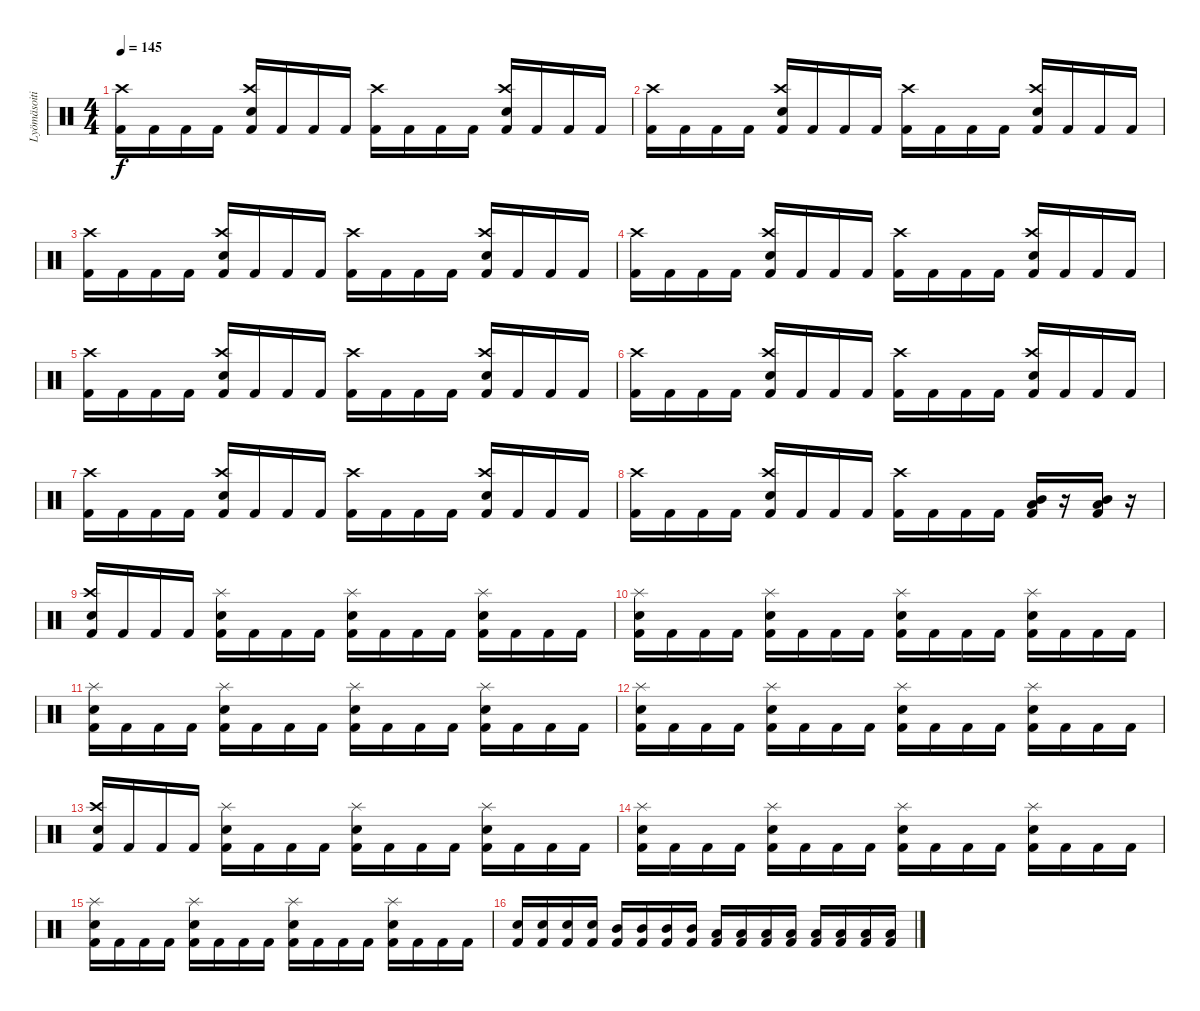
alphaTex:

\track ("Lyömäsoitin" "Lyömäsoiti") {instrument percussion}
\staff {score}
\articulation defaults
\ts (4 4)
\tempo 145
\clef neutral
\ks c
("Kick (hit) 2" "Crash high (hit)").16{dy f} "Kick (hit) 2".16 "Kick (hit) 2".16 "Kick (hit) 2".16 ("Kick (hit) 2" "Electric Snare (hit)" "Crash high (hit)").16 "Kick (hit) 2".16 "Kick (hit) 2".16 "Kick (hit) 2".16 ("Kick (hit) 2" "Crash high (hit)").16 "Kick (hit) 2".16 "Kick (hit) 2".16 "Kick (hit) 2".16 ("Kick (hit) 2" "Electric Snare (hit)" "Crash high (hit)").16 "Kick (hit) 2".16 "Kick (hit) 2".16 "Kick (hit) 2".16 |
("Kick (hit) 2" "Crash high (hit)").16 "Kick (hit) 2".16 "Kick (hit) 2".16 "Kick (hit) 2".16 ("Kick (hit) 2" "Electric Snare (hit)" "Crash high (hit)").16 "Kick (hit) 2".16 "Kick (hit) 2".16 "Kick (hit) 2".16 ("Kick (hit) 2" "Crash high (hit)").16 "Kick (hit) 2".16 "Kick (hit) 2".16 "Kick (hit) 2".16 ("Kick (hit) 2" "Electric Snare (hit)" "Crash high (hit)").16 "Kick (hit) 2".16 "Kick (hit) 2".16 "Kick (hit) 2".16 |
("Kick (hit) 2" "Crash high (hit)").16 "Kick (hit) 2".16 "Kick (hit) 2".16 "Kick (hit) 2".16 ("Kick (hit) 2" "Electric Snare (hit)" "Crash high (hit)").16 "Kick (hit) 2".16 "Kick (hit) 2".16 "Kick (hit) 2".16 ("Kick (hit) 2" "Crash high (hit)").16 "Kick (hit) 2".16 "Kick (hit) 2".16 "Kick (hit) 2".16 ("Kick (hit) 2" "Electric Snare (hit)" "Crash high (hit)").16 "Kick (hit) 2".16 "Kick (hit) 2".16 "Kick (hit) 2".16 |
("Kick (hit) 2" "Crash high (hit)").16 "Kick (hit) 2".16 "Kick (hit) 2".16 "Kick (hit) 2".16 ("Kick (hit) 2" "Electric Snare (hit)" "Crash high (hit)").16 "Kick (hit) 2".16 "Kick (hit) 2".16 "Kick (hit) 2".16 ("Kick (hit) 2" "Crash high (hit)").16 "Kick (hit) 2".16 "Kick (hit) 2".16 "Kick (hit) 2".16 ("Kick (hit) 2" "Electric Snare (hit)" "Crash high (hit)").16 "Kick (hit) 2".16 "Kick (hit) 2".16 "Kick (hit) 2".16 |
("Kick (hit) 2" "Crash high (hit)").16 "Kick (hit) 2".16 "Kick (hit) 2".16 "Kick (hit) 2".16 ("Kick (hit) 2" "Electric Snare (hit)" "Crash high (hit)").16 "Kick (hit) 2".16 "Kick (hit) 2".16 "Kick (hit) 2".16 ("Kick (hit) 2" "Crash high (hit)").16 "Kick (hit) 2".16 "Kick (hit) 2".16 "Kick (hit) 2".16 ("Kick (hit) 2" "Electric Snare (hit)" "Crash high (hit)").16 "Kick (hit) 2".16 "Kick (hit) 2".16 "Kick (hit) 2".16 |
("Kick (hit) 2" "Crash high (hit)").16 "Kick (hit) 2".16 "Kick (hit) 2".16 "Kick (hit) 2".16 ("Kick (hit) 2" "Electric Snare (hit)" "Crash high (hit)").16 "Kick (hit) 2".16 "Kick (hit) 2".16 "Kick (hit) 2".16 ("Kick (hit) 2" "Crash high (hit)").16 "Kick (hit) 2".16 "Kick (hit) 2".16 "Kick (hit) 2".16 ("Kick (hit) 2" "Electric Snare (hit)" "Crash high (hit)").16 "Kick (hit) 2".16 "Kick (hit) 2".16 "Kick (hit) 2".16 |
("Kick (hit) 2" "Crash high (hit)").16 "Kick (hit) 2".16 "Kick (hit) 2".16 "Kick (hit) 2".16 ("Kick (hit) 2" "Electric Snare (hit)" "Crash high (hit)").16 "Kick (hit) 2".16 "Kick (hit) 2".16 "Kick (hit) 2".16 ("Kick (hit) 2" "Crash high (hit)").16 "Kick (hit) 2".16 "Kick (hit) 2".16 "Kick (hit) 2".16 ("Kick (hit) 2" "Electric Snare (hit)" "Crash high (hit)").16 "Kick (hit) 2".16 "Kick (hit) 2".16 "Kick (hit) 2".16 |
("Kick (hit) 2" "Crash high (hit)").16 "Kick (hit) 2".16 "Kick (hit) 2".16 "Kick (hit) 2".16 ("Kick (hit) 2" "Electric Snare (hit)" "Crash high (hit)").16 "Kick (hit) 2".16 "Kick (hit) 2".16 "Kick (hit) 2".16 ("Kick (hit) 2" "Crash high (hit)").16 "Kick (hit) 2".16 "Kick (hit) 2".16 "Kick (hit) 2".16 ("Kick (hit) 2" "Mid Tom (hit)" "Low Tom (hit)").16 r.16 ("Kick (hit) 2" "Mid Tom (hit)" "Low Tom (hit)").16 r.16 |
("Kick (hit) 2" "Electric Snare (hit)" "Crash high (hit)").16 "Kick (hit) 2".16 "Kick (hit) 2".16 "Kick (hit) 2".16 ("Kick (hit) 2" "Electric Snare (hit)" "Splash (hit)").16 "Kick (hit) 2".16 "Kick (hit) 2".16 "Kick (hit) 2".16 ("Kick (hit) 2" "Electric Snare (hit)" "Splash (hit)").16 "Kick (hit) 2".16 "Kick (hit) 2".16 "Kick (hit) 2".16 ("Kick (hit) 2" "Electric Snare (hit)" "Splash (hit)").16 "Kick (hit) 2".16 "Kick (hit) 2".16 "Kick (hit) 2".16 |
("Kick (hit) 2" "Electric Snare (hit)" "Splash (hit)").16 "Kick (hit) 2".16 "Kick (hit) 2".16 "Kick (hit) 2".16 ("Kick (hit) 2" "Electric Snare (hit)" "Splash (hit)").16 "Kick (hit) 2".16 "Kick (hit) 2".16 "Kick (hit) 2".16 ("Kick (hit) 2" "Electric Snare (hit)" "Splash (hit)").16 "Kick (hit) 2".16 "Kick (hit) 2".16 "Kick (hit) 2".16 ("Kick (hit) 2" "Electric Snare (hit)" "Splash (hit)").16 "Kick (hit) 2".16 "Kick (hit) 2".16 "Kick (hit) 2".16 |
("Kick (hit) 2" "Electric Snare (hit)" "Splash (hit)").16 "Kick (hit) 2".16 "Kick (hit) 2".16 "Kick (hit) 2".16 ("Kick (hit) 2" "Electric Snare (hit)" "Splash (hit)").16 "Kick (hit) 2".16 "Kick (hit) 2".16 "Kick (hit) 2".16 ("Kick (hit) 2" "Electric Snare (hit)" "Splash (hit)").16 "Kick (hit) 2".16 "Kick (hit) 2".16 "Kick (hit) 2".16 ("Kick (hit) 2" "Electric Snare (hit)" "Splash (hit)").16 "Kick (hit) 2".16 "Kick (hit) 2".16 "Kick (hit) 2".16 |
("Kick (hit) 2" "Electric Snare (hit)" "Splash (hit)").16 "Kick (hit) 2".16 "Kick (hit) 2".16 "Kick (hit) 2".16 ("Kick (hit) 2" "Electric Snare (hit)" "Splash (hit)").16 "Kick (hit) 2".16 "Kick (hit) 2".16 "Kick (hit) 2".16 ("Kick (hit) 2" "Electric Snare (hit)" "Splash (hit)").16 "Kick (hit) 2".16 "Kick (hit) 2".16 "Kick (hit) 2".16 ("Kick (hit) 2" "Electric Snare (hit)" "Splash (hit)").16 "Kick (hit) 2".16 "Kick (hit) 2".16 "Kick (hit) 2".16 |
("Kick (hit) 2" "Electric Snare (hit)" "Crash high (hit)").16 "Kick (hit) 2".16 "Kick (hit) 2".16 "Kick (hit) 2".16 ("Kick (hit) 2" "Electric Snare (hit)" "Splash (hit)").16 "Kick (hit) 2".16 "Kick (hit) 2".16 "Kick (hit) 2".16 ("Kick (hit) 2" "Electric Snare (hit)" "Splash (hit)").16 "Kick (hit) 2".16 "Kick (hit) 2".16 "Kick (hit) 2".16 ("Kick (hit) 2" "Electric Snare (hit)" "Splash (hit)").16 "Kick (hit) 2".16 "Kick (hit) 2".16 "Kick (hit) 2".16 |
("Kick (hit) 2" "Electric Snare (hit)" "Splash (hit)").16 "Kick (hit) 2".16 "Kick (hit) 2".16 "Kick (hit) 2".16 ("Kick (hit) 2" "Electric Snare (hit)" "Splash (hit)").16 "Kick (hit) 2".16 "Kick (hit) 2".16 "Kick (hit) 2".16 ("Kick (hit) 2" "Electric Snare (hit)" "Splash (hit)").16 "Kick (hit) 2".16 "Kick (hit) 2".16 "Kick (hit) 2".16 ("Kick (hit) 2" "Electric Snare (hit)" "Splash (hit)").16 "Kick (hit) 2".16 "Kick (hit) 2".16 "Kick (hit) 2".16 |
("Kick (hit) 2" "Electric Snare (hit)" "Splash (hit)").16 "Kick (hit) 2".16 "Kick (hit) 2".16 "Kick (hit) 2".16 ("Kick (hit) 2" "Electric Snare (hit)" "Splash (hit)").16 "Kick (hit) 2".16 "Kick (hit) 2".16 "Kick (hit) 2".16 ("Kick (hit) 2" "Electric Snare (hit)" "Splash (hit)").16 "Kick (hit) 2".16 "Kick (hit) 2".16 "Kick (hit) 2".16 ("Kick (hit) 2" "Electric Snare (hit)" "Splash (hit)").16 "Kick (hit) 2".16 "Kick (hit) 2".16 "Kick (hit) 2".16 |
("Kick (hit) 2" "Electric Snare (hit)").16 ("Kick (hit) 2" "Electric Snare (hit)").16 ("Kick (hit) 2" "Electric Snare (hit)").16 ("Kick (hit) 2" "Electric Snare (hit)").16 ("Kick (hit) 2" "Mid Tom (hit)").16 ("Kick (hit) 2" "Mid Tom (hit)").16 ("Kick (hit) 2" "Mid Tom (hit)").16 ("Kick (hit) 2" "Mid Tom (hit)").16 ("Kick (hit) 2" "Low Tom (hit)").16 ("Kick (hit) 2" "Low Tom (hit)").16 ("Kick (hit) 2" "Low Tom (hit)").16 ("Kick (hit) 2" "Low Tom (hit)").16 ("Kick (hit) 2" "Low Floor Tom (hit)").16 ("Kick (hit) 2" "Low Floor Tom (hit)").16 ("Kick (hit) 2" "Low Floor Tom (hit)").16 ("Kick (hit) 2" "Low Floor Tom (hit)").16
